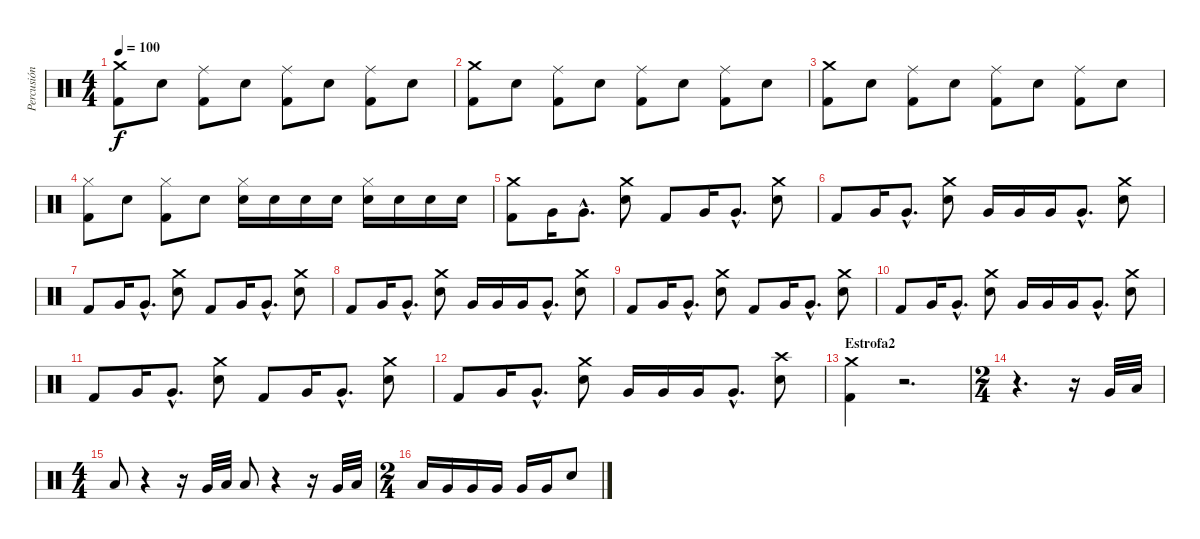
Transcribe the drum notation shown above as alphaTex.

\track ("Percusión" "Percusión") {instrument percussion}
\staff {score}
\articulation defaults
\ts (4 4)
\tempo 100
\clef neutral
\ks c
("Crash medium (hit)" "Kick (hit) 2").8{dy f} "Snare (hit) 2".8 ("Ride (middle)" "Kick (hit) 2").8 "Snare (hit) 2".8 ("Ride (middle)" "Kick (hit) 2").8 "Snare (hit) 2".8 ("Ride (middle)" "Kick (hit) 2").8 "Snare (hit) 2".8 |
("Crash medium (hit)" "Kick (hit) 2").8 "Snare (hit) 2".8 ("Ride (middle)" "Kick (hit) 2").8 "Snare (hit) 2".8 ("Ride (middle)" "Kick (hit) 2").8 "Snare (hit) 2".8 ("Ride (middle)" "Kick (hit) 2").8 "Snare (hit) 2".8 |
("Crash medium (hit)" "Kick (hit) 2").8 "Snare (hit) 2".8 ("Ride (middle)" "Kick (hit) 2").8 "Snare (hit) 2".8 ("Ride (middle)" "Kick (hit) 2").8 "Snare (hit) 2".8 ("Kick (hit) 2" "Ride (middle)").8 "Snare (hit) 2".8 |
("Hi-Hat (closed)" "Kick (hit) 2").8 "Snare (hit) 2".8 ("Kick (hit) 2" "Hi-Hat (closed)").8 "Snare (hit) 2".8 ("Hi-Hat (closed)" "Snare (hit) 2").16 "Snare (hit) 2".16 "Snare (hit) 2".16 "Snare (hit) 2".16 ("Hi-Hat (closed)" "Snare (hit) 2").16 "Snare (hit) 2".16 "Snare (hit) 2".16 "Snare (hit) 2".16 |
("Crash medium (hit)" "Kick (hit) 2").8 "Very Low Tom (hit)".16 "Very Low Tom (hit)"{hac}.8{d} ("Crash medium (hit)" "Snare (hit) 2").8 "Kick (hit) 2".8 "Very Low Tom (hit)".16 "Very Low Tom (hit)"{hac}.8{d} ("Crash medium (hit)" "Snare (hit) 2").8 |
"Kick (hit) 2".8 "Very Low Tom (hit)".16 "Very Low Tom (hit)"{hac}.8{d} ("Crash medium (hit)" "Snare (hit) 2").8 "Very Low Tom (hit)".16 "Very Low Tom (hit)".16 "Very Low Tom (hit)".16 "Very Low Tom (hit)"{hac}.8{d} ("Crash medium (hit)" "Snare (hit) 2").8 |
"Kick (hit) 2".8 "Very Low Tom (hit)".16 "Very Low Tom (hit)"{hac}.8{d} ("Crash medium (hit)" "Snare (hit) 2").8 "Kick (hit) 2".8 "Very Low Tom (hit)".16 "Very Low Tom (hit)"{hac}.8{d} ("Crash medium (hit)" "Snare (hit) 2").8 |
"Kick (hit) 2".8 "Very Low Tom (hit)".16 "Very Low Tom (hit)"{hac}.8{d} ("Crash medium (hit)" "Snare (hit) 2").8 "Very Low Tom (hit)".16 "Very Low Tom (hit)".16 "Very Low Tom (hit)".16 "Very Low Tom (hit)"{hac}.8{d} ("Crash medium (hit)" "Snare (hit) 2").8 |
"Kick (hit) 2".8 "Very Low Tom (hit)".16 "Very Low Tom (hit)"{hac}.8{d} ("Crash medium (hit)" "Snare (hit) 2").8 "Kick (hit) 2".8 "Very Low Tom (hit)".16 "Very Low Tom (hit)"{hac}.8{d} ("Crash medium (hit)" "Snare (hit) 2").8 |
"Kick (hit) 2".8 "Very Low Tom (hit)".16 "Very Low Tom (hit)"{hac}.8{d} ("Crash medium (hit)" "Snare (hit) 2").8 "Very Low Tom (hit)".16 "Very Low Tom (hit)".16 "Very Low Tom (hit)".16 "Very Low Tom (hit)"{hac}.8{d} ("Crash medium (hit)" "Snare (hit) 2").8 |
"Kick (hit) 2".8 "Very Low Tom (hit)".16 "Very Low Tom (hit)"{hac}.8{d} ("Crash medium (hit)" "Snare (hit) 2").8 "Kick (hit) 2".8 "Very Low Tom (hit)".16 "Very Low Tom (hit)"{hac}.8{d} ("Crash medium (hit)" "Snare (hit) 2").8 |
"Kick (hit) 2".8 "Very Low Tom (hit)".16 "Very Low Tom (hit)"{hac}.8{d} ("Crash medium (hit)" "Snare (hit) 2").8 "Very Low Tom (hit)".16 "Very Low Tom (hit)".16 "Very Low Tom (hit)".16 "Very Low Tom (hit)"{hac}.8{d} ("Crash high (hit)" "Snare (hit) 2").8 |
\section ("" "Estrofa2")
("Crash medium (hit)" "Kick (hit) 2").4 r.2{d} |
\ts (2 4)
r.4{d} r.16 "Very Low Tom (hit)".32 "Low Floor Tom (hit)".32 |
\ts (4 4)
"Low Tom (hit)".8 r.4 r.16 "Very Low Tom (hit)".32 "Low Floor Tom (hit)".32 "Low Tom (hit)".8 r.4 r.16 "Very Low Tom (hit)".32 "Low Floor Tom (hit)".32 |
\ts (2 4)
"Low Tom (hit)".16 "Very Low Tom (hit)".16 "Very Low Tom (hit)".16 "Very Low Tom (hit)".16 "Very Low Tom (hit)".16 "Very Low Tom (hit)".16 "Snare (hit) 2".8
